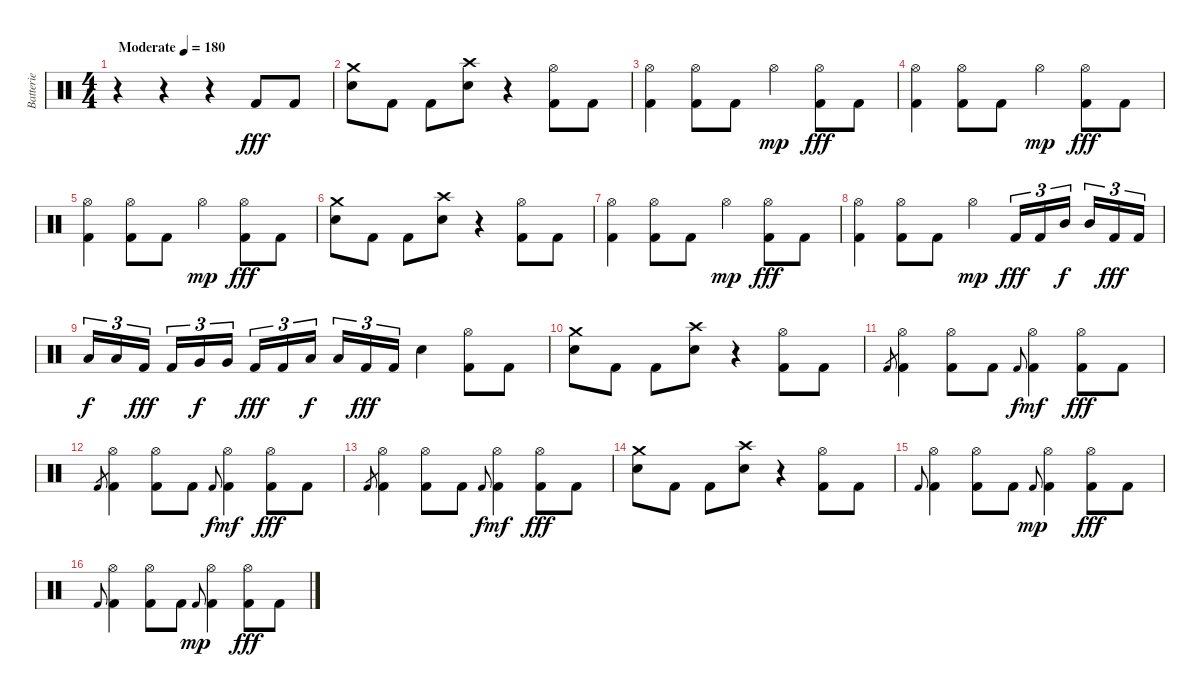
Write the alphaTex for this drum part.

\track ("Batterie" "Batterie") {instrument percussion}
\staff {score}
\articulation defaults
\ts (4 4)
\tempo (180 "Moderate")
\clef neutral
\ks c
r.4{dy fff} r.4 r.4 "Kick (hit) 2".8 "Kick (hit) 2".8 |
("Crash medium (hit)" "Electric Snare (hit)").8 "Kick (hit) 2".8 "Kick (hit) 2".8 ("Crash high (hit)" "Electric Snare (hit)").8 r.4 ("Hi-Hat (open)" "Kick (hit) 2").8 "Kick (hit) 2".8 |
("Hi-Hat (open)" "Kick (hit) 2").4 ("Hi-Hat (open)" "Kick (hit) 2").8 "Kick (hit) 2".8 "Hi-Hat (open)".4{dy mp} ("Hi-Hat (open)" "Kick (hit) 2").8{dy fff} "Kick (hit) 2".8 |
("Hi-Hat (open)" "Kick (hit) 2").4 ("Hi-Hat (open)" "Kick (hit) 2").8 "Kick (hit) 2".8 "Hi-Hat (open)".4{dy mp} ("Hi-Hat (open)" "Kick (hit) 2").8{dy fff} "Kick (hit) 2".8 |
("Hi-Hat (open)" "Kick (hit) 2").4 ("Hi-Hat (open)" "Kick (hit) 2").8 "Kick (hit) 2".8 "Hi-Hat (open)".4{dy mp} ("Hi-Hat (open)" "Kick (hit) 2").8{dy fff} "Kick (hit) 2".8 |
("Crash medium (hit)" "Electric Snare (hit)").8 "Kick (hit) 2".8 "Kick (hit) 2".8 ("Crash high (hit)" "Electric Snare (hit)").8 r.4 ("Hi-Hat (open)" "Kick (hit) 2").8 "Kick (hit) 2".8 |
("Hi-Hat (open)" "Kick (hit) 2").4 ("Hi-Hat (open)" "Kick (hit) 2").8 "Kick (hit) 2".8 "Hi-Hat (open)".4{dy mp} ("Hi-Hat (open)" "Kick (hit) 2").8{dy fff} "Kick (hit) 2".8 |
("Hi-Hat (open)" "Kick (hit) 2").4 ("Hi-Hat (open)" "Kick (hit) 2").8 "Kick (hit) 2".8 "Hi-Hat (open)".4{dy mp} "Kick (hit) 2".16{tu (3 2) dy fff} "Kick (hit) 2".16{tu (3 2)} "Mid Tom (hit)".16{tu (3 2) dy f beam splitsecondary} "Mid Tom (hit)".16{tu (3 2)} "Kick (hit) 2".16{tu (3 2) dy fff} "Kick (hit) 2".16{tu (3 2)} |
"Low Tom (hit)".16{tu (3 2) dy f} "Low Tom (hit)".16{tu (3 2)} "Kick (hit) 2".16{tu (3 2) dy fff beam splitsecondary} "Kick (hit) 2".16{tu (3 2)} "Very Low Tom (hit)".16{tu (3 2) dy f} "Very Low Tom (hit)".16{tu (3 2)} "Kick (hit) 2".16{tu (3 2) dy fff} "Kick (hit) 2".16{tu (3 2)} "Low Floor Tom (hit)".16{tu (3 2) dy f beam splitsecondary} "Low Floor Tom (hit)".16{tu (3 2)} "Kick (hit) 2".16{tu (3 2) dy fff} "Kick (hit) 2".16{tu (3 2)} "Electric Snare (hit)".4 ("Hi-Hat (open)" "Kick (hit) 2").8 "Kick (hit) 2".8 |
("Crash medium (hit)" "Electric Snare (hit)").8 "Kick (hit) 2".8 "Kick (hit) 2".8 ("Crash high (hit)" "Electric Snare (hit)").8 r.4 ("Hi-Hat (open)" "Kick (hit) 2").8 "Kick (hit) 2".8 |
"Kick (hit) 2".8{gr} ("Hi-Hat (open)" "Kick (hit) 2").4 ("Hi-Hat (open)" "Kick (hit) 2").8 "Kick (hit) 2".8 "Kick (hit) 2".8{gr onbeat dy f} ("Hi-Hat (open)" "Kick (hit) 2").4{dy mf} ("Hi-Hat (open)" "Kick (hit) 2").8{dy fff} "Kick (hit) 2".8 |
"Kick (hit) 2".8{gr} ("Hi-Hat (open)" "Kick (hit) 2").4 ("Hi-Hat (open)" "Kick (hit) 2").8 "Kick (hit) 2".8 "Kick (hit) 2".8{gr onbeat dy f} ("Hi-Hat (open)" "Kick (hit) 2").4{dy mf} ("Hi-Hat (open)" "Kick (hit) 2").8{dy fff} "Kick (hit) 2".8 |
"Kick (hit) 2".8{gr} ("Hi-Hat (open)" "Kick (hit) 2").4 ("Hi-Hat (open)" "Kick (hit) 2").8 "Kick (hit) 2".8 "Kick (hit) 2".8{gr onbeat dy f} ("Hi-Hat (open)" "Kick (hit) 2").4{dy mf} ("Hi-Hat (open)" "Kick (hit) 2").8{dy fff} "Kick (hit) 2".8 |
("Crash medium (hit)" "Electric Snare (hit)").8 "Kick (hit) 2".8 "Kick (hit) 2".8 ("Crash high (hit)" "Electric Snare (hit)").8 r.4 ("Hi-Hat (open)" "Kick (hit) 2").8 "Kick (hit) 2".8 |
"Kick (hit) 2".8{gr onbeat} ("Hi-Hat (open)" "Kick (hit) 2").4 ("Hi-Hat (open)" "Kick (hit) 2").8 "Kick (hit) 2".8 "Kick (hit) 2".8{gr onbeat dy mp} ("Hi-Hat (open)" "Kick (hit) 2").4 ("Hi-Hat (open)" "Kick (hit) 2").8{dy fff} "Kick (hit) 2".8 |
"Kick (hit) 2".8{gr onbeat} ("Hi-Hat (open)" "Kick (hit) 2").4 ("Hi-Hat (open)" "Kick (hit) 2").8 "Kick (hit) 2".8 "Kick (hit) 2".8{gr onbeat dy mp} ("Hi-Hat (open)" "Kick (hit) 2").4 ("Hi-Hat (open)" "Kick (hit) 2").8{dy fff} "Kick (hit) 2".8
